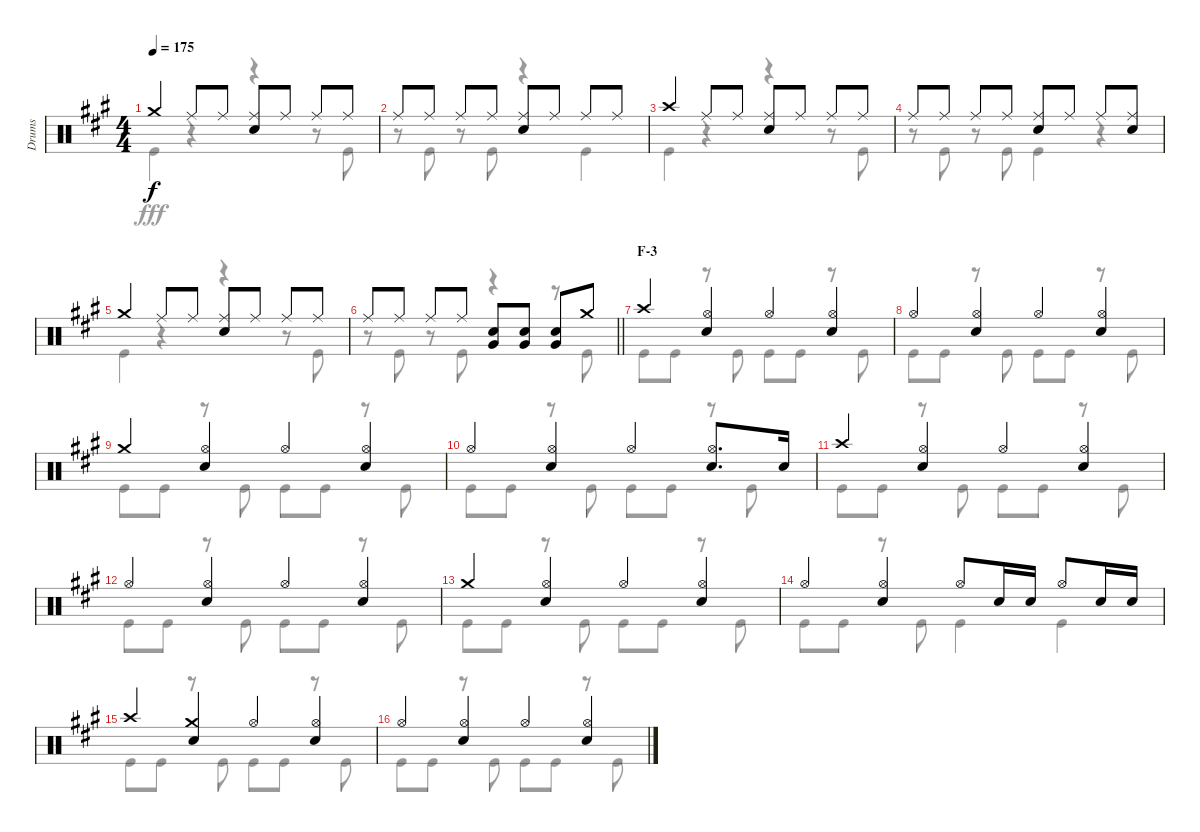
\track ("Drums" "Drums") {instrument percussion}
\staff {score}
\articulation defaults
\voice
\ts (4 4)
\tempo 175
\clef neutral
\ks a "Crash medium (hit)".4{dy f} "Ride (middle)".8 "Ride (middle)".8
("Ride (middle)" "Snare (hit) 2").8 "Ride (middle)".8 "Ride (middle)".8 "Ride (middle)".8 |
"Ride (middle)".8 "Ride (middle)".8 "Ride (middle)".8 "Ride (middle)".8 ("Ride (middle)" "Snare (hit) 2").8 "Ride (middle)".8 "Ride (middle)".8 "Ride (middle)".8 |
"Crash high (hit)".4 "Ride (middle)".8 "Ride (middle)".8 ("Ride (middle)" "Snare (hit) 2").8 "Ride (middle)".8 "Ride (middle)".8 "Ride (middle)".8 |
"Ride (middle)".8 "Ride (middle)".8 "Ride (middle)".8 "Ride (middle)".8 ("Ride (middle)" "Snare (hit) 2").8 "Ride (middle)".8 "Ride (middle)".8 ("Ride (middle)" "Snare (hit) 2").8 |
"Crash medium (hit)".4 "Ride (middle)".8 "Ride (middle)".8 ("Ride (middle)" "Snare (hit) 2").8 "Ride (middle)".8 "Ride (middle)".8 "Ride (middle)".8 |
\barLineRight lightlight "Ride (middle)".8 "Ride (middle)".8 "Ride (middle)".8 "Ride (middle)".8
("Snare (hit) 2" "Very Low Tom (hit)").8 ("Snare (hit) 2" "Very Low Tom (hit)").8 ("Snare (hit) 2" "Very Low Tom (hit)").8 "Crash medium (hit)".8 |
\section ("" "F-3")
"Crash high (hit)".4 ("Hi-Hat (open)" "Snare (hit) 2").4 "Hi-Hat (open)".4 ("Hi-Hat (open)" "Snare (hit) 2").4 |
"Hi-Hat (open)".4 ("Hi-Hat (open)" "Snare (hit) 2").4 "Hi-Hat (open)".4 ("Hi-Hat (open)" "Snare (hit) 2").4 |
"Crash medium (hit)".4 ("Hi-Hat (open)" "Snare (hit) 2").4 "Hi-Hat (open)".4 ("Hi-Hat (open)" "Snare (hit) 2").4 |
"Hi-Hat (open)".4 ("Hi-Hat (open)" "Snare (hit) 2").4 "Hi-Hat (open)".4 ("Hi-Hat (open)" "Snare (hit) 2").8{d} "Snare (hit) 2".16 |
"Crash high (hit)".4 ("Hi-Hat (open)" "Snare (hit) 2").4 "Hi-Hat (open)".4 ("Hi-Hat (open)" "Snare (hit) 2").4 |
"Hi-Hat (open)".4 ("Hi-Hat (open)" "Snare (hit) 2").4 "Hi-Hat (open)".4 ("Hi-Hat (open)" "Snare (hit) 2").4 |
"Crash medium (hit)".4 ("Hi-Hat (open)" "Snare (hit) 2").4 "Hi-Hat (open)".4 ("Hi-Hat (open)" "Snare (hit) 2").4 |
"Hi-Hat (open)".4 ("Hi-Hat (open)" "Snare (hit) 2").4 "Hi-Hat (open)".8 "Snare (hit) 2".16 "Snare (hit) 2".16 "Hi-Hat (open)".8 "Snare (hit) 2".16 "Snare (hit) 2".16 |
"Crash high (hit)".4 ("Crash medium (hit)" "Snare (hit) 2").4 "Hi-Hat (open)".4 ("Hi-Hat (open)" "Snare (hit) 2").4 |
"Hi-Hat (open)".4 ("Hi-Hat (open)" "Snare (hit) 2").4 "Hi-Hat (open)".4 ("Hi-Hat (open)" "Snare (hit) 2").4
\voice
\clef neutral
\ottava regular
\simile none
\ks a "Kick (hit)".4{dy fff}
r.4 r.4 r.8 "Kick (hit)".8 |
r.8 "Kick (hit)".8 r.8 "Kick (hit)".8 r.4 "Kick (hit)".4 |
"Kick (hit)".4 r.4 r.4 r.8 "Kick (hit)".8 |
r.8 "Kick (hit)".8 r.8 "Kick (hit)".8 "Kick (hit)".4 r.4 |
"Kick (hit)".4 r.4 r.4 r.8 "Kick (hit)".8 |
\barLineRight lightlight
r.8 "Kick (hit)".8 r.8 "Kick (hit)".8 r.4 r.8 "Kick (hit)".8 |
"Kick (hit)".8 "Kick (hit)".8 r.8 "Kick (hit)".8 "Kick (hit)".8 "Kick (hit)".8 r.8 "Kick (hit)".8 |
"Kick (hit)".8 "Kick (hit)".8 r.8 "Kick (hit)".8 "Kick (hit)".8 "Kick (hit)".8 r.8 "Kick (hit)".8 |
"Kick (hit)".8 "Kick (hit)".8 r.8 "Kick (hit)".8 "Kick (hit)".8 "Kick (hit)".8 r.8 "Kick (hit)".8 |
"Kick (hit)".8 "Kick (hit)".8 r.8 "Kick (hit)".8 "Kick (hit)".8 "Kick (hit)".8 r.8 "Kick (hit)".8 |
"Kick (hit)".8 "Kick (hit)".8 r.8 "Kick (hit)".8 "Kick (hit)".8 "Kick (hit)".8 r.8 "Kick (hit)".8 |
"Kick (hit)".8 "Kick (hit)".8 r.8 "Kick (hit)".8 "Kick (hit)".8 "Kick (hit)".8 r.8 "Kick (hit)".8 |
"Kick (hit)".8 "Kick (hit)".8 r.8 "Kick (hit)".8 "Kick (hit)".8 "Kick (hit)".8 r.8 "Kick (hit)".8 |
"Kick (hit)".8 "Kick (hit)".8 r.8 "Kick (hit)".8 "Kick (hit)".4 "Kick (hit)".4 |
"Kick (hit)".8 "Kick (hit)".8 r.8 "Kick (hit)".8 "Kick (hit)".8 "Kick (hit)".8 r.8 "Kick (hit)".8 |
"Kick (hit)".8 "Kick (hit)".8 r.8 "Kick (hit)".8 "Kick (hit)".8 "Kick (hit)".8 r.8 "Kick (hit)".8
